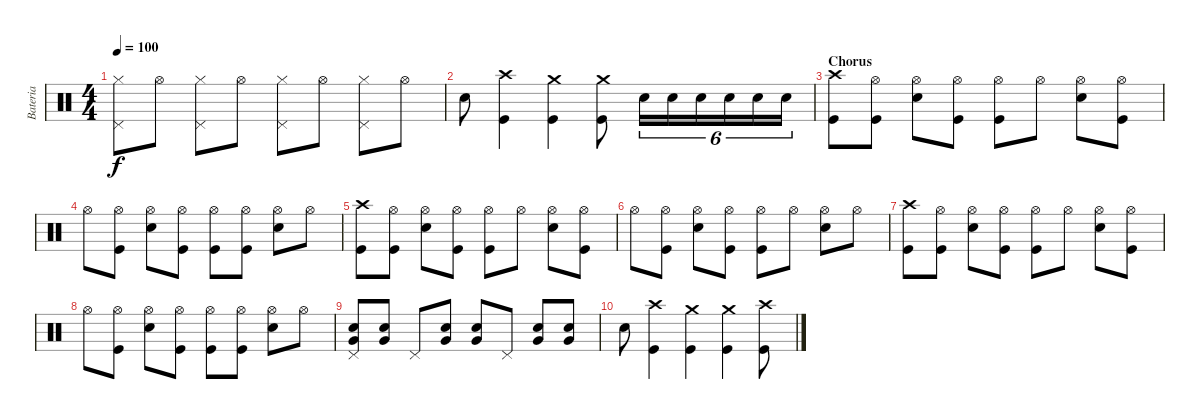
\track ("Bateria" "Bateria") {instrument percussion}
\staff {score}
\articulation defaults
\ts (4 4)
\tempo 100
\clef neutral
\ks c
("Hi-Hat (closed)" "Pedal Hi-Hat (hit)").8{dy f} "Hi-Hat (open)".8 ("Hi-Hat (closed)" "Pedal Hi-Hat (hit)").8 "Hi-Hat (open)".8 ("Hi-Hat (closed)" "Pedal Hi-Hat (hit)").8 "Hi-Hat (open)".8 ("Hi-Hat (closed)" "Pedal Hi-Hat (hit)").8 "Hi-Hat (open)".8 |
"Electric Snare (hit)".8 ("Crash high (hit)" "Kick (hit)").4 ("Crash medium (hit)" "Kick (hit)").4 ("Crash medium (hit)" "Kick (hit)").8 "Electric Snare (hit)".16{tu (6 4)} "Electric Snare (hit)".16{tu (6 4)} "Electric Snare (hit)".16{tu (6 4)} "Electric Snare (hit)".16{tu (6 4)} "Electric Snare (hit)".16{tu (6 4)} "Electric Snare (hit)".16{tu (6 4)} |
\section ("" "Chorus")
("Crash high (hit)" "Kick (hit)").8 ("Hi-Hat (open)" "Kick (hit)").8 ("Hi-Hat (open)" "Electric Snare (hit)").8 ("Hi-Hat (open)" "Kick (hit)").8 ("Hi-Hat (open)" "Kick (hit)").8 "Hi-Hat (open)".8 ("Hi-Hat (open)" "Electric Snare (hit)").8 ("Hi-Hat (open)" "Kick (hit)").8 |
"Hi-Hat (open)".8 ("Hi-Hat (open)" "Kick (hit)").8 ("Hi-Hat (open)" "Electric Snare (hit)").8 ("Hi-Hat (open)" "Kick (hit)").8 ("Hi-Hat (open)" "Kick (hit)").8 ("Hi-Hat (open)" "Kick (hit)").8 ("Hi-Hat (open)" "Electric Snare (hit)").8 "Hi-Hat (open)".8 |
("Crash high (hit)" "Kick (hit)").8 ("Hi-Hat (open)" "Kick (hit)").8 ("Hi-Hat (open)" "Electric Snare (hit)").8 ("Hi-Hat (open)" "Kick (hit)").8 ("Hi-Hat (open)" "Kick (hit)").8 "Hi-Hat (open)".8 ("Hi-Hat (open)" "Electric Snare (hit)").8 ("Hi-Hat (open)" "Kick (hit)").8 |
"Hi-Hat (open)".8 ("Hi-Hat (open)" "Kick (hit)").8 ("Hi-Hat (open)" "Electric Snare (hit)").8 ("Hi-Hat (open)" "Kick (hit)").8 ("Hi-Hat (open)" "Kick (hit)").8 "Hi-Hat (open)".8 ("Hi-Hat (open)" "Electric Snare (hit)").8 "Hi-Hat (open)".8 |
("Crash high (hit)" "Kick (hit)").8 ("Hi-Hat (open)" "Kick (hit)").8 ("Hi-Hat (open)" "Electric Snare (hit)").8 ("Hi-Hat (open)" "Kick (hit)").8 ("Hi-Hat (open)" "Kick (hit)").8 "Hi-Hat (open)".8 ("Hi-Hat (open)" "Electric Snare (hit)").8 ("Hi-Hat (open)" "Kick (hit)").8 |
"Hi-Hat (open)".8 ("Hi-Hat (open)" "Kick (hit)").8 ("Hi-Hat (open)" "Electric Snare (hit)").8 ("Hi-Hat (open)" "Kick (hit)").8 ("Hi-Hat (open)" "Kick (hit)").8 ("Hi-Hat (open)" "Kick (hit)").8 ("Hi-Hat (open)" "Electric Snare (hit)").8 "Hi-Hat (open)".8 |
("Very Low Tom (hit)" "Electric Snare (hit)" "Pedal Hi-Hat (hit)").8 ("Very Low Tom (hit)" "Electric Snare (hit)").8 "Pedal Hi-Hat (hit)".8 ("Very Low Tom (hit)" "Electric Snare (hit)").8 ("Very Low Tom (hit)" "Electric Snare (hit)").8 "Pedal Hi-Hat (hit)".8 ("Very Low Tom (hit)" "Electric Snare (hit)").8 ("Very Low Tom (hit)" "Electric Snare (hit)").8 |
"Electric Snare (hit)".8 ("Crash high (hit)" "Kick (hit)").4 ("Crash medium (hit)" "Kick (hit)").4 ("Crash medium (hit)" "Kick (hit)").4 ("Crash high (hit)" "Kick (hit)").8
